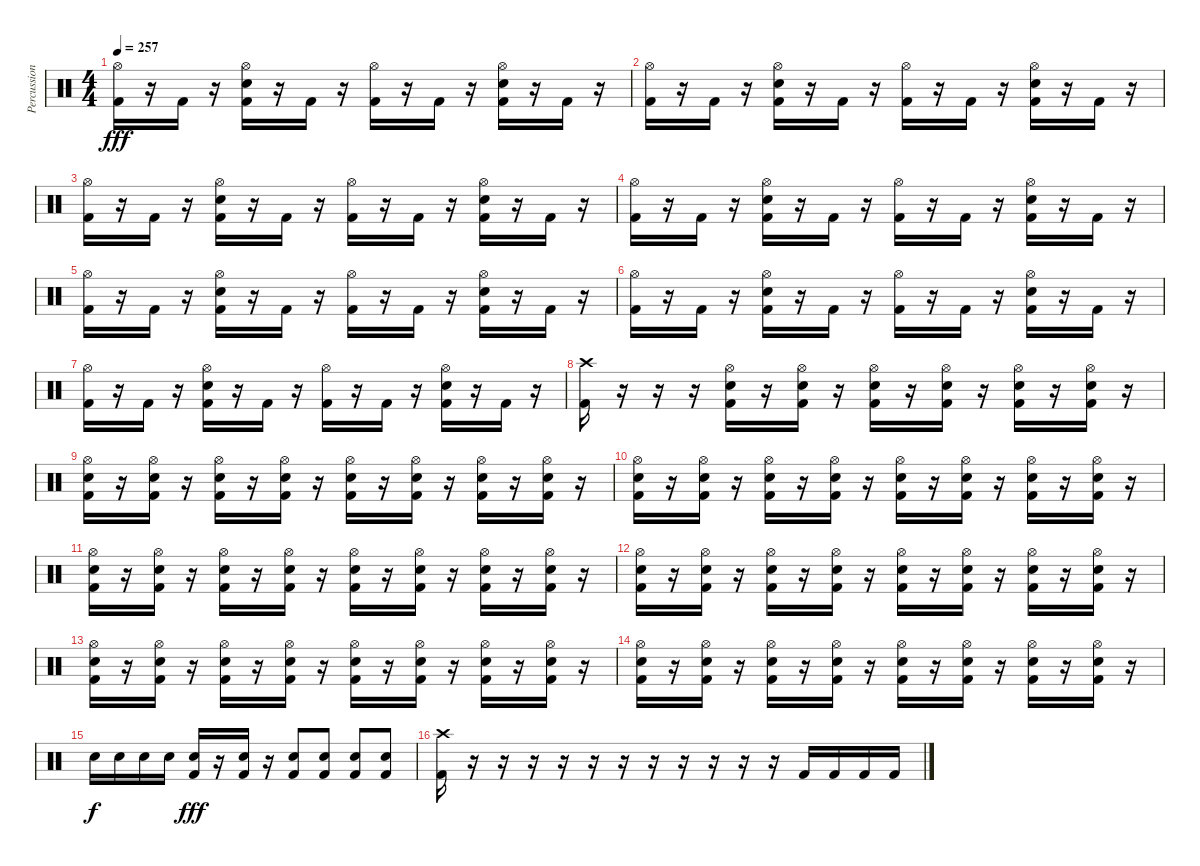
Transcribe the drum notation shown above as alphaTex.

\track ("Percussion" "Percussion") {instrument percussion}
\staff {score}
\articulation defaults
\ts (4 4)
\tempo 257
\clef neutral
\ks c
("Hi-Hat (open)" "Kick (hit) 2").16{dy fff} r.16 "Kick (hit) 2".16 r.16 ("Hi-Hat (open)" "Electric Snare (hit)" "Kick (hit) 2").16 r.16 "Kick (hit) 2".16 r.16 ("Hi-Hat (open)" "Kick (hit) 2").16 r.16 "Kick (hit) 2".16 r.16 ("Hi-Hat (open)" "Electric Snare (hit)" "Kick (hit) 2").16 r.16 "Kick (hit) 2".16 r.16 |
("Hi-Hat (open)" "Kick (hit) 2").16 r.16 "Kick (hit) 2".16 r.16 ("Hi-Hat (open)" "Electric Snare (hit)" "Kick (hit) 2").16 r.16 "Kick (hit) 2".16 r.16 ("Hi-Hat (open)" "Kick (hit) 2").16 r.16 "Kick (hit) 2".16 r.16 ("Hi-Hat (open)" "Electric Snare (hit)" "Kick (hit) 2").16 r.16 "Kick (hit) 2".16 r.16 |
("Hi-Hat (open)" "Kick (hit) 2").16 r.16 "Kick (hit) 2".16 r.16 ("Hi-Hat (open)" "Electric Snare (hit)" "Kick (hit) 2").16 r.16 "Kick (hit) 2".16 r.16 ("Hi-Hat (open)" "Kick (hit) 2").16 r.16 "Kick (hit) 2".16 r.16 ("Hi-Hat (open)" "Electric Snare (hit)" "Kick (hit) 2").16 r.16 "Kick (hit) 2".16 r.16 |
("Hi-Hat (open)" "Kick (hit) 2").16 r.16 "Kick (hit) 2".16 r.16 ("Hi-Hat (open)" "Electric Snare (hit)" "Kick (hit) 2").16 r.16 "Kick (hit) 2".16 r.16 ("Hi-Hat (open)" "Kick (hit) 2").16 r.16 "Kick (hit) 2".16 r.16 ("Hi-Hat (open)" "Electric Snare (hit)" "Kick (hit) 2").16 r.16 "Kick (hit) 2".16 r.16 |
("Hi-Hat (open)" "Kick (hit) 2").16 r.16 "Kick (hit) 2".16 r.16 ("Hi-Hat (open)" "Electric Snare (hit)" "Kick (hit) 2").16 r.16 "Kick (hit) 2".16 r.16 ("Hi-Hat (open)" "Kick (hit) 2").16 r.16 "Kick (hit) 2".16 r.16 ("Hi-Hat (open)" "Electric Snare (hit)" "Kick (hit) 2").16 r.16 "Kick (hit) 2".16 r.16 |
("Hi-Hat (open)" "Kick (hit) 2").16 r.16 "Kick (hit) 2".16 r.16 ("Hi-Hat (open)" "Electric Snare (hit)" "Kick (hit) 2").16 r.16 "Kick (hit) 2".16 r.16 ("Hi-Hat (open)" "Kick (hit) 2").16 r.16 "Kick (hit) 2".16 r.16 ("Hi-Hat (open)" "Electric Snare (hit)" "Kick (hit) 2").16 r.16 "Kick (hit) 2".16 r.16 |
("Hi-Hat (open)" "Kick (hit) 2").16 r.16 "Kick (hit) 2".16 r.16 ("Hi-Hat (open)" "Electric Snare (hit)" "Kick (hit) 2").16 r.16 "Kick (hit) 2".16 r.16 ("Hi-Hat (open)" "Kick (hit) 2").16 r.16 "Kick (hit) 2".16 r.16 ("Hi-Hat (open)" "Electric Snare (hit)" "Kick (hit) 2").16 r.16 "Kick (hit) 2".16 r.16 |
("Crash high (hit)" "Kick (hit) 2").16 r.16 r.16 r.16 ("Hi-Hat (open)" "Electric Snare (hit)" "Kick (hit) 2").16 r.16 ("Hi-Hat (open)" "Electric Snare (hit)" "Kick (hit) 2").16 r.16 ("Hi-Hat (open)" "Electric Snare (hit)" "Kick (hit) 2").16 r.16 ("Hi-Hat (open)" "Electric Snare (hit)" "Kick (hit) 2").16 r.16 ("Hi-Hat (open)" "Electric Snare (hit)" "Kick (hit) 2").16 r.16 ("Hi-Hat (open)" "Electric Snare (hit)" "Kick (hit) 2").16 r.16 |
("Hi-Hat (open)" "Electric Snare (hit)" "Kick (hit) 2").16 r.16 ("Hi-Hat (open)" "Electric Snare (hit)" "Kick (hit) 2").16 r.16 ("Hi-Hat (open)" "Electric Snare (hit)" "Kick (hit) 2").16 r.16 ("Hi-Hat (open)" "Electric Snare (hit)" "Kick (hit) 2").16 r.16 ("Hi-Hat (open)" "Electric Snare (hit)" "Kick (hit) 2").16 r.16 ("Hi-Hat (open)" "Electric Snare (hit)" "Kick (hit) 2").16 r.16 ("Hi-Hat (open)" "Electric Snare (hit)" "Kick (hit) 2").16 r.16 ("Hi-Hat (open)" "Electric Snare (hit)" "Kick (hit) 2").16 r.16 |
("Hi-Hat (open)" "Electric Snare (hit)" "Kick (hit) 2").16 r.16 ("Hi-Hat (open)" "Electric Snare (hit)" "Kick (hit) 2").16 r.16 ("Hi-Hat (open)" "Electric Snare (hit)" "Kick (hit) 2").16 r.16 ("Hi-Hat (open)" "Electric Snare (hit)" "Kick (hit) 2").16 r.16 ("Hi-Hat (open)" "Electric Snare (hit)" "Kick (hit) 2").16 r.16 ("Hi-Hat (open)" "Electric Snare (hit)" "Kick (hit) 2").16 r.16 ("Hi-Hat (open)" "Electric Snare (hit)" "Kick (hit) 2").16 r.16 ("Hi-Hat (open)" "Electric Snare (hit)" "Kick (hit) 2").16 r.16 |
("Hi-Hat (open)" "Electric Snare (hit)" "Kick (hit) 2").16 r.16 ("Hi-Hat (open)" "Electric Snare (hit)" "Kick (hit) 2").16 r.16 ("Hi-Hat (open)" "Electric Snare (hit)" "Kick (hit) 2").16 r.16 ("Hi-Hat (open)" "Electric Snare (hit)" "Kick (hit) 2").16 r.16 ("Hi-Hat (open)" "Electric Snare (hit)" "Kick (hit) 2").16 r.16 ("Hi-Hat (open)" "Electric Snare (hit)" "Kick (hit) 2").16 r.16 ("Hi-Hat (open)" "Electric Snare (hit)" "Kick (hit) 2").16 r.16 ("Hi-Hat (open)" "Electric Snare (hit)" "Kick (hit) 2").16 r.16 |
("Hi-Hat (open)" "Electric Snare (hit)" "Kick (hit) 2").16 r.16 ("Hi-Hat (open)" "Electric Snare (hit)" "Kick (hit) 2").16 r.16 ("Hi-Hat (open)" "Electric Snare (hit)" "Kick (hit) 2").16 r.16 ("Hi-Hat (open)" "Electric Snare (hit)" "Kick (hit) 2").16 r.16 ("Hi-Hat (open)" "Electric Snare (hit)" "Kick (hit) 2").16 r.16 ("Hi-Hat (open)" "Electric Snare (hit)" "Kick (hit) 2").16 r.16 ("Hi-Hat (open)" "Electric Snare (hit)" "Kick (hit) 2").16 r.16 ("Hi-Hat (open)" "Electric Snare (hit)" "Kick (hit) 2").16 r.16 |
("Hi-Hat (open)" "Electric Snare (hit)" "Kick (hit) 2").16 r.16 ("Hi-Hat (open)" "Electric Snare (hit)" "Kick (hit) 2").16 r.16 ("Hi-Hat (open)" "Electric Snare (hit)" "Kick (hit) 2").16 r.16 ("Hi-Hat (open)" "Electric Snare (hit)" "Kick (hit) 2").16 r.16 ("Hi-Hat (open)" "Electric Snare (hit)" "Kick (hit) 2").16 r.16 ("Hi-Hat (open)" "Electric Snare (hit)" "Kick (hit) 2").16 r.16 ("Hi-Hat (open)" "Electric Snare (hit)" "Kick (hit) 2").16 r.16 ("Hi-Hat (open)" "Electric Snare (hit)" "Kick (hit) 2").16 r.16 |
("Hi-Hat (open)" "Electric Snare (hit)" "Kick (hit) 2").16 r.16 ("Hi-Hat (open)" "Electric Snare (hit)" "Kick (hit) 2").16 r.16 ("Hi-Hat (open)" "Electric Snare (hit)" "Kick (hit) 2").16 r.16 ("Hi-Hat (open)" "Electric Snare (hit)" "Kick (hit) 2").16 r.16 ("Hi-Hat (open)" "Electric Snare (hit)" "Kick (hit) 2").16 r.16 ("Hi-Hat (open)" "Electric Snare (hit)" "Kick (hit) 2").16 r.16 ("Hi-Hat (open)" "Electric Snare (hit)" "Kick (hit) 2").16 r.16 ("Hi-Hat (open)" "Electric Snare (hit)" "Kick (hit) 2").16 r.16 |
"Electric Snare (hit)".16{dy f} "Electric Snare (hit)".16 "Electric Snare (hit)".16 "Electric Snare (hit)".16 ("Electric Snare (hit)" "Kick (hit) 2").16{dy fff} r.16 ("Electric Snare (hit)" "Kick (hit) 2").16 r.16 ("Electric Snare (hit)" "Kick (hit) 2").8 ("Electric Snare (hit)" "Kick (hit) 2").8 ("Snare (hit) 2" "Kick (hit) 2").8 ("Snare (hit) 2" "Kick (hit) 2").8 |
("Crash high (hit)" "Kick (hit) 2").16 r.16 r.16 r.16 r.16 r.16 r.16 r.16 r.16 r.16 r.16 r.16 "Kick (hit) 2".16 "Kick (hit) 2".16 "Kick (hit) 2".16 "Kick (hit) 2".16
